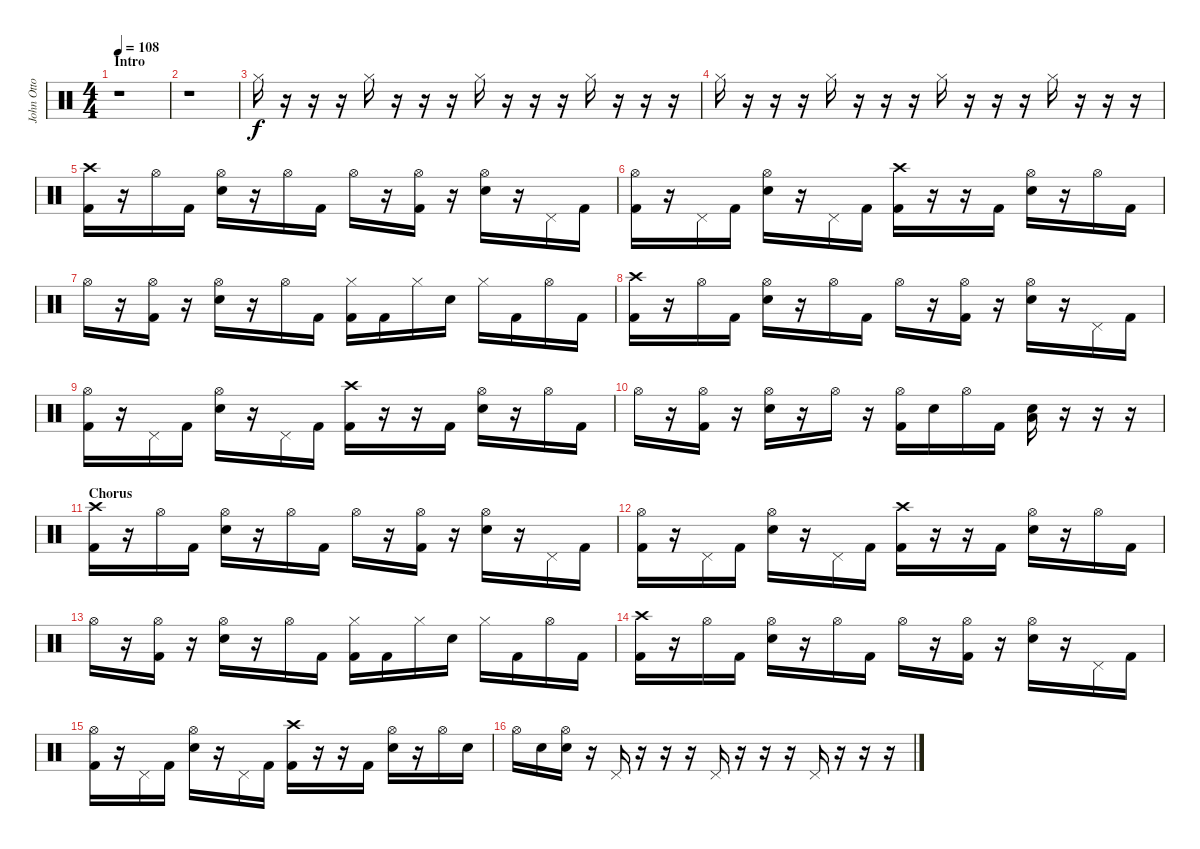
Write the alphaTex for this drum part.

\track ("John Otto - Drums" "John Otto ") {instrument percussion}
\staff {score}
\articulation defaults
\ts (4 4)
\section ("" "Intro")
\tempo 108
\clef neutral
\ks c
r.1{dy f} |
r.1 |
"Hi-Hat (closed)".16 r.16 r.16 r.16 "Hi-Hat (closed)".16 r.16 r.16 r.16 "Hi-Hat (closed)".16 r.16 r.16 r.16 "Hi-Hat (closed)".16 r.16 r.16 r.16 |
"Hi-Hat (closed)".16 r.16 r.16 r.16 "Hi-Hat (closed)".16 r.16 r.16 r.16 "Hi-Hat (closed)".16 r.16 r.16 r.16 "Hi-Hat (closed)".16 r.16 r.16 r.16 |
("Crash high (hit)" "Kick (hit) 2").16 r.16 "Hi-Hat (open)".16 "Kick (hit) 2".16 ("Hi-Hat (open)" "Snare (hit) 2").16 r.16 "Hi-Hat (open)".16 "Kick (hit) 2".16 "Hi-Hat (open)".16 r.16 ("Hi-Hat (open)" "Kick (hit) 2").16 r.16 ("Hi-Hat (open)" "Snare (hit) 2").16 r.16 "Pedal Hi-Hat (hit)".16 "Kick (hit) 2".16 |
("Hi-Hat (open)" "Kick (hit) 2").16 r.16 "Pedal Hi-Hat (hit)".16 "Kick (hit) 2".16 ("Hi-Hat (open)" "Snare (hit) 2").16 r.16 "Pedal Hi-Hat (hit)".16 "Kick (hit) 2".16 ("Crash high (hit)" "Kick (hit) 2").16 r.16 r.16 "Kick (hit) 2".16 ("Hi-Hat (open)" "Snare (hit) 2").16 r.16 "Hi-Hat (open)".16 "Kick (hit) 2".16 |
"Hi-Hat (open)".16 r.16 ("Hi-Hat (open)" "Kick (hit) 2").16 r.16 ("Hi-Hat (open)" "Snare (hit) 2").16 r.16 "Hi-Hat (open)".16 "Kick (hit) 2".16 ("Hi-Hat (closed)" "Kick (hit) 2").16 "Kick (hit) 2".16 "Hi-Hat (closed)".16 "Snare (hit) 2".16 "Hi-Hat (closed)".16 "Kick (hit) 2".16 "Hi-Hat (open)".16 "Kick (hit) 2".16 |
("Crash high (hit)" "Kick (hit) 2").16 r.16 "Hi-Hat (open)".16 "Kick (hit) 2".16 ("Hi-Hat (open)" "Snare (hit) 2").16 r.16 "Hi-Hat (open)".16 "Kick (hit) 2".16 "Hi-Hat (open)".16 r.16 ("Hi-Hat (open)" "Kick (hit) 2").16 r.16 ("Hi-Hat (open)" "Snare (hit) 2").16 r.16 "Pedal Hi-Hat (hit)".16 "Kick (hit) 2".16 |
("Hi-Hat (open)" "Kick (hit) 2").16 r.16 "Pedal Hi-Hat (hit)".16 "Kick (hit) 2".16 ("Hi-Hat (open)" "Snare (hit) 2").16 r.16 "Pedal Hi-Hat (hit)".16 "Kick (hit) 2".16 ("Crash high (hit)" "Kick (hit) 2").16 r.16 r.16 "Kick (hit) 2".16 ("Hi-Hat (open)" "Snare (hit) 2").16 r.16 "Hi-Hat (open)".16 "Kick (hit) 2".16 |
"Hi-Hat (open)".16 r.16 ("Hi-Hat (open)" "Kick (hit) 2").16 r.16 ("Hi-Hat (open)" "Snare (hit) 2").16 r.16 "Hi-Hat (open)".16 r.16 ("Hi-Hat (open)" "Kick (hit) 2").16 "Snare (hit) 2".16 "Hi-Hat (open)".16 "Kick (hit) 2".16 ("Low Floor Tom (hit)" "Snare (hit) 2").16 r.16 r.16 r.16 |
\section ("" "Chorus")
("Crash high (hit)" "Kick (hit) 2").16 r.16 "Hi-Hat (open)".16 "Kick (hit) 2".16 ("Hi-Hat (open)" "Snare (hit) 2").16 r.16 "Hi-Hat (open)".16 "Kick (hit) 2".16 "Hi-Hat (open)".16 r.16 ("Hi-Hat (open)" "Kick (hit) 2").16 r.16 ("Hi-Hat (open)" "Snare (hit) 2").16 r.16 "Pedal Hi-Hat (hit)".16 "Kick (hit) 2".16 |
("Hi-Hat (open)" "Kick (hit) 2").16 r.16 "Pedal Hi-Hat (hit)".16 "Kick (hit) 2".16 ("Hi-Hat (open)" "Snare (hit) 2").16 r.16 "Pedal Hi-Hat (hit)".16 "Kick (hit) 2".16 ("Crash high (hit)" "Kick (hit) 2").16 r.16 r.16 "Kick (hit) 2".16 ("Hi-Hat (open)" "Snare (hit) 2").16 r.16 "Hi-Hat (open)".16 "Kick (hit) 2".16 |
"Hi-Hat (open)".16 r.16 ("Hi-Hat (open)" "Kick (hit) 2").16 r.16 ("Hi-Hat (open)" "Snare (hit) 2").16 r.16 "Hi-Hat (open)".16 "Kick (hit) 2".16 ("Hi-Hat (closed)" "Kick (hit) 2").16 "Kick (hit) 2".16 "Hi-Hat (closed)".16 "Snare (hit) 2".16 "Hi-Hat (closed)".16 "Kick (hit) 2".16 "Hi-Hat (open)".16 "Kick (hit) 2".16 |
("Crash high (hit)" "Kick (hit) 2").16 r.16 "Hi-Hat (open)".16 "Kick (hit) 2".16 ("Hi-Hat (open)" "Snare (hit) 2").16 r.16 "Hi-Hat (open)".16 "Kick (hit) 2".16 "Hi-Hat (open)".16 r.16 ("Hi-Hat (open)" "Kick (hit) 2").16 r.16 ("Hi-Hat (open)" "Snare (hit) 2").16 r.16 "Pedal Hi-Hat (hit)".16 "Kick (hit) 2".16 |
("Hi-Hat (open)" "Kick (hit) 2").16 r.16 "Pedal Hi-Hat (hit)".16 "Kick (hit) 2".16 ("Hi-Hat (open)" "Snare (hit) 2").16 r.16 "Pedal Hi-Hat (hit)".16 "Kick (hit) 2".16 ("Crash high (hit)" "Kick (hit) 2").16 r.16 r.16 "Kick (hit) 2".16 ("Hi-Hat (open)" "Snare (hit) 2").16 r.16 "Hi-Hat (open)".16 "Snare (hit) 2".16 |
"Hi-Hat (open)".16 "Snare (hit) 2".16 ("Hi-Hat (open)" "Snare (hit) 2").16 r.16 "Pedal Hi-Hat (hit)".16 r.16 r.16 r.16 "Pedal Hi-Hat (hit)".16 r.16 r.16 r.16 "Pedal Hi-Hat (hit)".16 r.16 r.16 r.16
